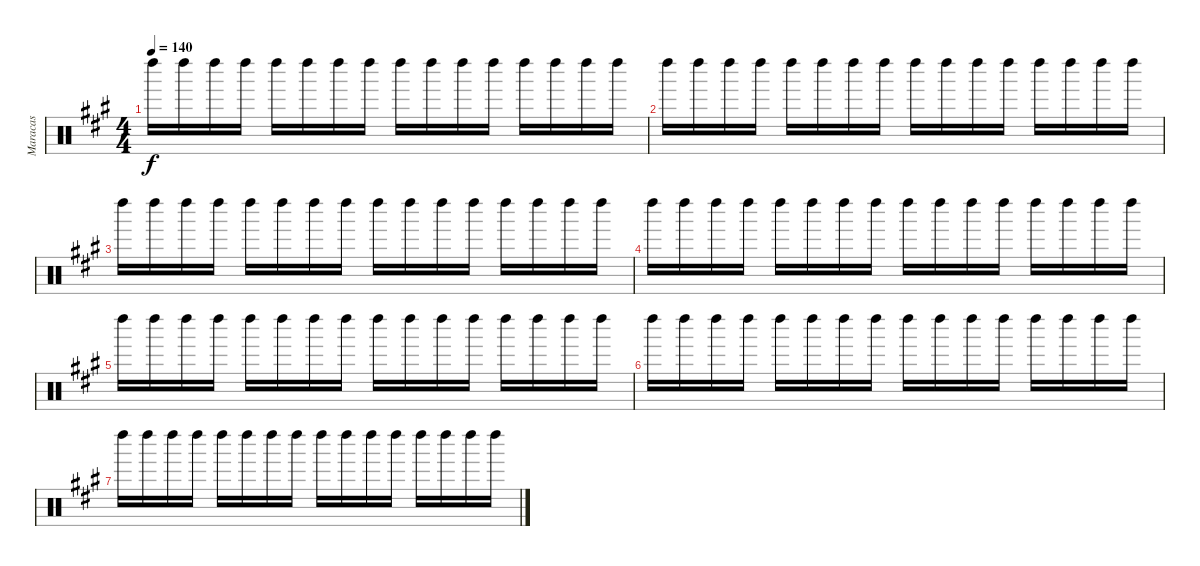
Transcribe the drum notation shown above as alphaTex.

\track ("Maracas" "Maracas") {instrument percussion}
\staff {score}
\articulation defaults
\ts (4 4)
\tempo 140
\clef neutral
\ks a "Left Maraca (hit)".16{dy f} "Left Maraca (hit)".16 "Left Maraca (hit)".16 "Left Maraca (hit)".16 "Left Maraca (hit)".16 "Left Maraca (hit)".16 "Left Maraca (hit)".16 "Left Maraca (hit)".16 "Left Maraca (hit)".16 "Left Maraca (hit)".16 "Left Maraca (hit)".16 "Left Maraca (hit)".16 "Left Maraca (hit)".16 "Left Maraca (hit)".16 "Left Maraca (hit)".16 "Left Maraca (hit)".16
|
"Left Maraca (hit)".16 "Left Maraca (hit)".16 "Left Maraca (hit)".16 "Left Maraca (hit)".16 "Left Maraca (hit)".16 "Left Maraca (hit)".16 "Left Maraca (hit)".16 "Left Maraca (hit)".16 "Left Maraca (hit)".16 "Left Maraca (hit)".16 "Left Maraca (hit)".16 "Left Maraca (hit)".16 "Left Maraca (hit)".16 "Left Maraca (hit)".16 "Left Maraca (hit)".16 "Left Maraca (hit)".16 |
"Left Maraca (hit)".16 "Left Maraca (hit)".16 "Left Maraca (hit)".16 "Left Maraca (hit)".16 "Left Maraca (hit)".16 "Left Maraca (hit)".16 "Left Maraca (hit)".16 "Left Maraca (hit)".16 "Left Maraca (hit)".16 "Left Maraca (hit)".16 "Left Maraca (hit)".16 "Left Maraca (hit)".16 "Left Maraca (hit)".16 "Left Maraca (hit)".16 "Left Maraca (hit)".16 "Left Maraca (hit)".16 |
"Left Maraca (hit)".16 "Left Maraca (hit)".16 "Left Maraca (hit)".16 "Left Maraca (hit)".16 "Left Maraca (hit)".16 "Left Maraca (hit)".16 "Left Maraca (hit)".16 "Left Maraca (hit)".16 "Left Maraca (hit)".16 "Left Maraca (hit)".16 "Left Maraca (hit)".16 "Left Maraca (hit)".16 "Left Maraca (hit)".16 "Left Maraca (hit)".16 "Left Maraca (hit)".16 "Left Maraca (hit)".16 |
"Left Maraca (hit)".16 "Left Maraca (hit)".16 "Left Maraca (hit)".16 "Left Maraca (hit)".16 "Left Maraca (hit)".16 "Left Maraca (hit)".16 "Left Maraca (hit)".16 "Left Maraca (hit)".16 "Left Maraca (hit)".16 "Left Maraca (hit)".16 "Left Maraca (hit)".16 "Left Maraca (hit)".16 "Left Maraca (hit)".16 "Left Maraca (hit)".16 "Left Maraca (hit)".16 "Left Maraca (hit)".16 |
"Left Maraca (hit)".16 "Left Maraca (hit)".16 "Left Maraca (hit)".16 "Left Maraca (hit)".16 "Left Maraca (hit)".16 "Left Maraca (hit)".16 "Left Maraca (hit)".16 "Left Maraca (hit)".16 "Left Maraca (hit)".16 "Left Maraca (hit)".16 "Left Maraca (hit)".16 "Left Maraca (hit)".16 "Left Maraca (hit)".16 "Left Maraca (hit)".16 "Left Maraca (hit)".16 "Left Maraca (hit)".16 |
"Left Maraca (hit)".16 "Left Maraca (hit)".16 "Left Maraca (hit)".16 "Left Maraca (hit)".16 "Left Maraca (hit)".16 "Left Maraca (hit)".16 "Left Maraca (hit)".16 "Left Maraca (hit)".16 "Left Maraca (hit)".16 "Left Maraca (hit)".16 "Left Maraca (hit)".16 "Left Maraca (hit)".16 "Left Maraca (hit)".16 "Left Maraca (hit)".16 "Left Maraca (hit)".16 "Left Maraca (hit)".16
